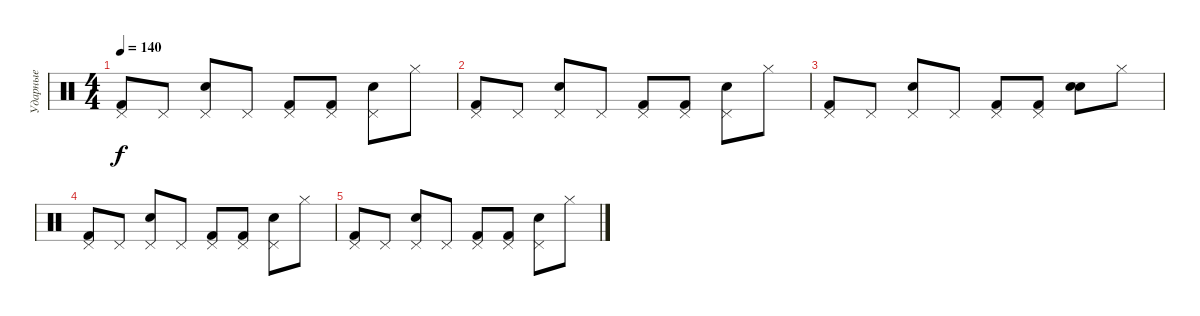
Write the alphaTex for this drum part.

\track ("Ударные" "Ударные") {instrument percussion}
\staff {score}
\articulation defaults
\ts (4 4)
\tempo 140
\clef neutral
\ks c
("Pedal Hi-Hat (hit)" "Kick (hit) 2").8{dy f} "Pedal Hi-Hat (hit)".8 ("Pedal Hi-Hat (hit)" "Snare (hit) 2").8 "Pedal Hi-Hat (hit)".8 ("Pedal Hi-Hat (hit)" "Kick (hit) 2").8 ("Pedal Hi-Hat (hit)" "Kick (hit) 2").8 ("Pedal Hi-Hat (hit)" "Snare (hit) 2").8 "Hi-Hat (closed)".8 |
("Pedal Hi-Hat (hit)" "Kick (hit) 2").8 "Pedal Hi-Hat (hit)".8 ("Pedal Hi-Hat (hit)" "Snare (hit) 2").8 "Pedal Hi-Hat (hit)".8 ("Pedal Hi-Hat (hit)" "Kick (hit) 2").8 ("Pedal Hi-Hat (hit)" "Kick (hit) 2").8 ("Pedal Hi-Hat (hit)" "Snare (hit) 2").8 "Hi-Hat (closed)".8 |
("Pedal Hi-Hat (hit)" "Kick (hit) 2").8 "Pedal Hi-Hat (hit)".8 ("Pedal Hi-Hat (hit)" "Snare (hit) 2").8 "Pedal Hi-Hat (hit)".8 ("Pedal Hi-Hat (hit)" "Kick (hit) 2").8 ("Pedal Hi-Hat (hit)" "Kick (hit) 2").8 ("Snare (hit)" "Snare (hit) 2").8 "Hi-Hat (closed)".8 |
("Pedal Hi-Hat (hit)" "Kick (hit) 2").8 "Pedal Hi-Hat (hit)".8 ("Pedal Hi-Hat (hit)" "Snare (hit) 2").8 "Pedal Hi-Hat (hit)".8 ("Pedal Hi-Hat (hit)" "Kick (hit) 2").8 ("Pedal Hi-Hat (hit)" "Kick (hit) 2").8 ("Pedal Hi-Hat (hit)" "Snare (hit) 2").8 "Hi-Hat (closed)".8 |
("Pedal Hi-Hat (hit)" "Kick (hit) 2").8 "Pedal Hi-Hat (hit)".8 ("Pedal Hi-Hat (hit)" "Snare (hit) 2").8 "Pedal Hi-Hat (hit)".8 ("Pedal Hi-Hat (hit)" "Kick (hit) 2").8 ("Pedal Hi-Hat (hit)" "Kick (hit) 2").8 ("Pedal Hi-Hat (hit)" "Snare (hit) 2").8 "Hi-Hat (closed)".8
